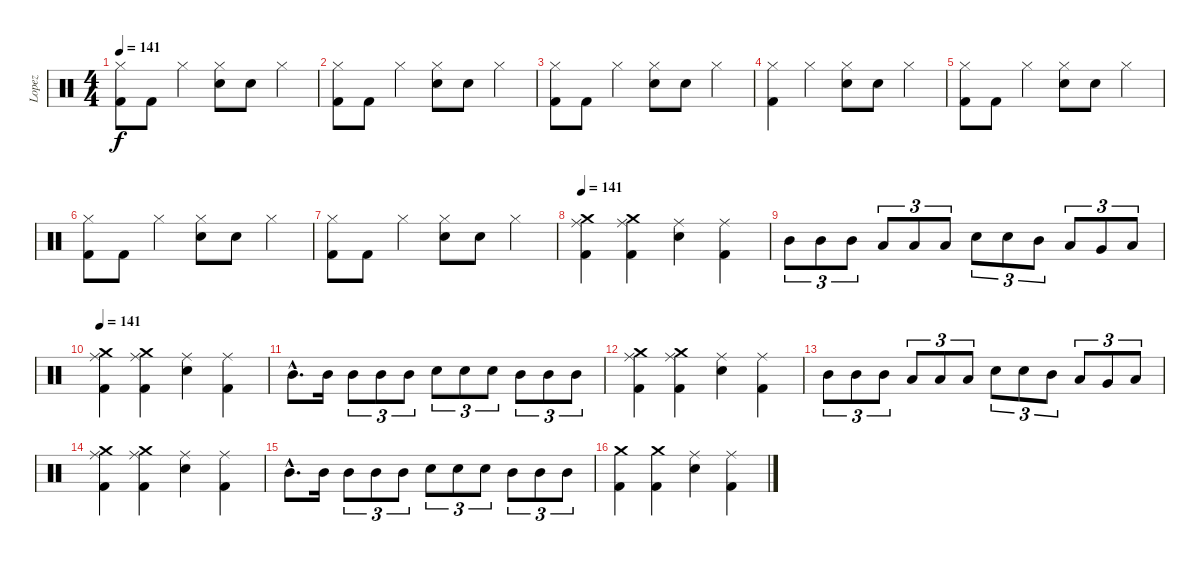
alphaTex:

\track ("Lopez" "Lopez") {instrument percussion}
\staff {score}
\articulation defaults
\ts (4 4)
\tempo 141
\clef neutral
\ks c
("Hi-Hat (closed)" "Kick (hit) 2").8{dy f} "Kick (hit) 2".8 "Hi-Hat (closed)".4 ("Hi-Hat (closed)" "Electric Snare (hit)").8 "Electric Snare (hit)".8 "Hi-Hat (closed)".4 |
("Hi-Hat (closed)" "Kick (hit) 2").8 "Kick (hit) 2".8 "Hi-Hat (closed)".4 ("Hi-Hat (closed)" "Electric Snare (hit)").8 "Electric Snare (hit)".8 "Hi-Hat (closed)".4 |
("Hi-Hat (closed)" "Kick (hit) 2").8 "Kick (hit) 2".8 "Hi-Hat (closed)".4 ("Hi-Hat (closed)" "Electric Snare (hit)").8 "Electric Snare (hit)".8 "Hi-Hat (closed)".4 |
("Hi-Hat (closed)" "Kick (hit) 2").4 "Hi-Hat (closed)".4 ("Hi-Hat (closed)" "Electric Snare (hit)").8 "Electric Snare (hit)".8 "Hi-Hat (closed)".4 |
("Hi-Hat (closed)" "Kick (hit) 2").8 "Kick (hit) 2".8 "Hi-Hat (closed)".4 ("Hi-Hat (closed)" "Electric Snare (hit)").8 "Electric Snare (hit)".8 "Hi-Hat (closed)".4 |
("Hi-Hat (closed)" "Kick (hit) 2").8 "Kick (hit) 2".8 "Hi-Hat (closed)".4 ("Hi-Hat (closed)" "Electric Snare (hit)").8 "Electric Snare (hit)".8 "Hi-Hat (closed)".4 |
("Hi-Hat (closed)" "Kick (hit) 2").8 "Kick (hit) 2".8 "Hi-Hat (closed)".4 ("Hi-Hat (closed)" "Electric Snare (hit)").8 "Electric Snare (hit)".8 "Hi-Hat (closed)".4 |
\tempo 141
("Crash medium (hit)" "Ride (middle)" "Kick (hit) 2").4 ("Crash medium (hit)" "Ride (middle)" "Kick (hit) 2").4 ("Ride (middle)" "Electric Snare (hit)").4 ("Ride (middle)" "Kick (hit) 2").4 |
"Mid Tom (hit)".8{tu (3 2)} "Mid Tom (hit)".8{tu (3 2)} "Mid Tom (hit)".8{tu (3 2)} "Low Tom (hit)".8{tu (3 2)} "Low Tom (hit)".8{tu (3 2)} "Low Tom (hit)".8{tu (3 2)} "Electric Snare (hit)".8{tu (3 2)} "Electric Snare (hit)".8{tu (3 2)} "Mid Tom (hit)".8{tu (3 2)} "Low Tom (hit)".8{tu (3 2)} "Very Low Tom (hit)".8{tu (3 2)} "Low Floor Tom (hit)".8{tu (3 2)} |
\tempo 141
("Crash medium (hit)" "Ride (middle)" "Kick (hit) 2").4 ("Crash medium (hit)" "Ride (middle)" "Kick (hit) 2").4 ("Ride (middle)" "Electric Snare (hit)").4 ("Ride (middle)" "Kick (hit) 2").4 |
"Mid Tom (hit)"{hac}.8{d} "Mid Tom (hit)".16 "Mid Tom (hit)".8{tu (3 2)} "Mid Tom (hit)".8{tu (3 2)} "Mid Tom (hit)".8{tu (3 2)} "Electric Snare (hit)".8{tu (3 2)} "Electric Snare (hit)".8{tu (3 2)} "Electric Snare (hit)".8{tu (3 2)} "Mid Tom (hit)".8{tu (3 2)} "Mid Tom (hit)".8{tu (3 2)} "Mid Tom (hit)".8{tu (3 2)} |
("Crash medium (hit)" "Ride (middle)" "Kick (hit) 2").4 ("Crash medium (hit)" "Ride (middle)" "Kick (hit) 2").4 ("Ride (middle)" "Electric Snare (hit)").4 ("Ride (middle)" "Kick (hit) 2").4 |
"Mid Tom (hit)".8{tu (3 2)} "Mid Tom (hit)".8{tu (3 2)} "Mid Tom (hit)".8{tu (3 2)} "Low Tom (hit)".8{tu (3 2)} "Low Tom (hit)".8{tu (3 2)} "Low Tom (hit)".8{tu (3 2)} "Electric Snare (hit)".8{tu (3 2)} "Electric Snare (hit)".8{tu (3 2)} "Mid Tom (hit)".8{tu (3 2)} "Low Tom (hit)".8{tu (3 2)} "Very Low Tom (hit)".8{tu (3 2)} "Low Floor Tom (hit)".8{tu (3 2)} |
("Crash medium (hit)" "Ride (middle)" "Kick (hit) 2").4 ("Crash medium (hit)" "Ride (middle)" "Kick (hit) 2").4 ("Ride (middle)" "Electric Snare (hit)").4 ("Ride (middle)" "Kick (hit) 2").4 |
"Mid Tom (hit)"{hac}.8{d} "Mid Tom (hit)".16 "Mid Tom (hit)".8{tu (3 2)} "Mid Tom (hit)".8{tu (3 2)} "Mid Tom (hit)".8{tu (3 2)} "Electric Snare (hit)".8{tu (3 2)} "Electric Snare (hit)".8{tu (3 2)} "Electric Snare (hit)".8{tu (3 2)} "Mid Tom (hit)".8{tu (3 2)} "Mid Tom (hit)".8{tu (3 2)} "Mid Tom (hit)".8{tu (3 2)} |
("Crash medium (hit)" "Kick (hit) 2").4 ("Crash medium (hit)" "Kick (hit) 2").4 ("Ride (middle)" "Electric Snare (hit)").4 ("Ride (middle)" "Kick (hit) 2").4
